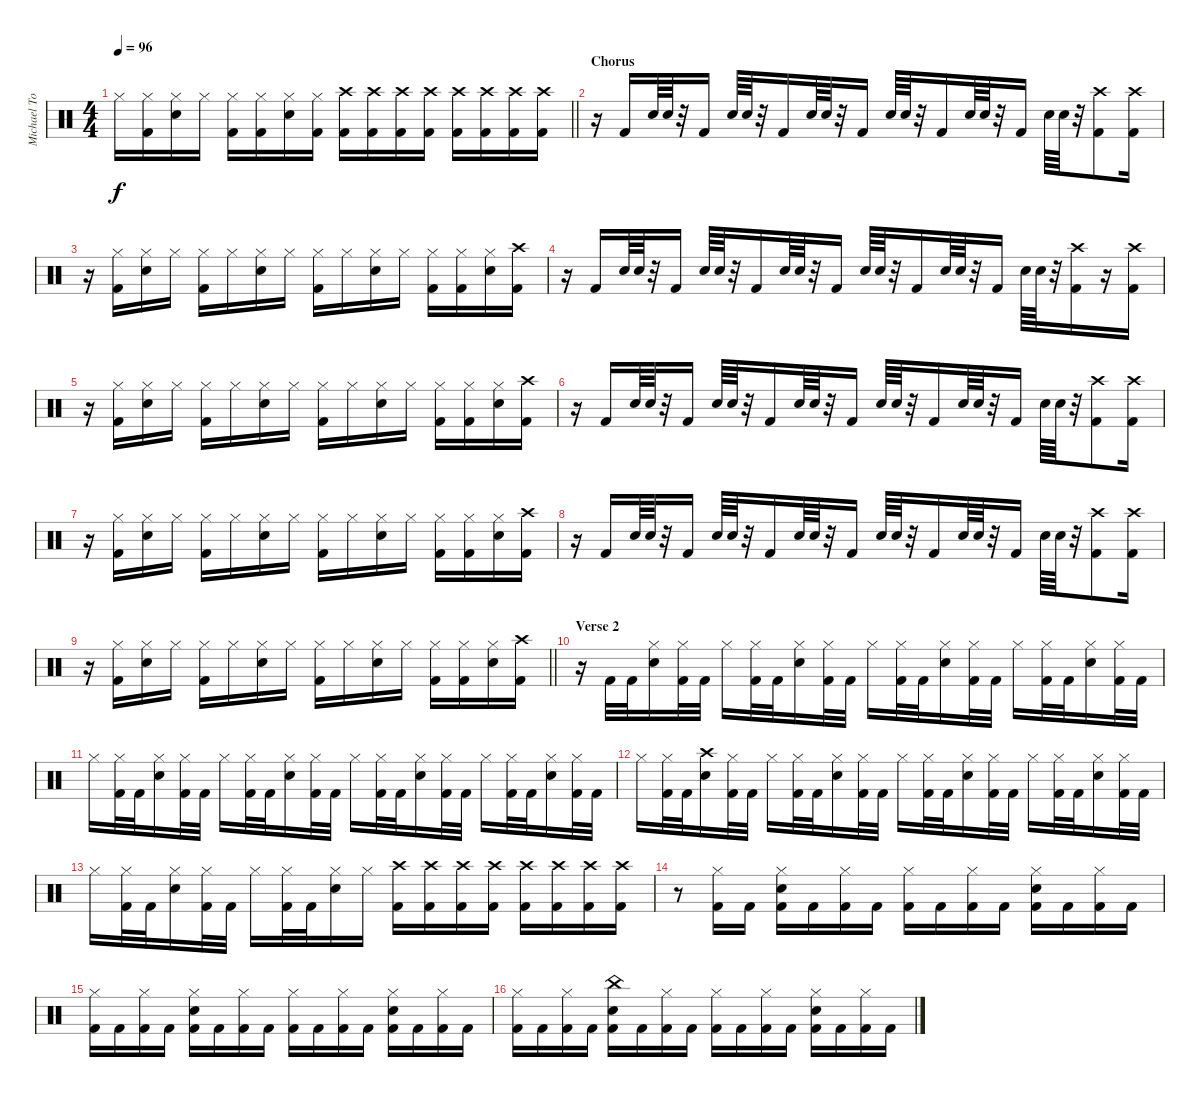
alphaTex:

\track ("Michael Tomas (Drums)" "Michael To") {instrument percussion}
\staff {score}
\articulation defaults
\ts (4 4)
\tempo 96
\clef neutral
\barLineRight lightlight
\ks c "Hi-Hat (closed)".16{dy f}
("Hi-Hat (closed)" "Kick (hit) 2").16 ("Hi-Hat (closed)" "Snare (hit) 2").16 "Hi-Hat (closed)".16 ("Hi-Hat (closed)" "Kick (hit) 2").16 ("Hi-Hat (closed)" "Kick (hit) 2").16 ("Hi-Hat (closed)" "Snare (hit) 2").16 ("Hi-Hat (closed)" "Kick (hit) 2").16 ("Crash high (hit)" "Kick (hit) 2").16 ("Crash high (hit)" "Kick (hit) 2").16 ("Crash high (hit)" "Kick (hit) 2").16 ("Crash high (hit)" "Kick (hit) 2").16 ("Crash high (hit)" "Kick (hit) 2").16 ("Crash high (hit)" "Kick (hit) 2").16 ("Crash high (hit)" "Kick (hit) 2").16 ("Crash high (hit)" "Kick (hit) 2").16 |
\section ("" "Chorus")
r.16 "Kick (hit) 2".16 "Snare (hit) 2".64 "Snare (hit) 2".64 r.32 "Kick (hit) 2".16 "Snare (hit) 2".64 "Snare (hit) 2".64 r.32 "Kick (hit) 2".16 "Snare (hit) 2".64 "Snare (hit) 2".64 r.32 "Kick (hit) 2".16 "Snare (hit) 2".64 "Snare (hit) 2".64 r.32 "Kick (hit) 2".16 "Snare (hit) 2".64 "Snare (hit) 2".64 r.32 "Kick (hit) 2".16 "Snare (hit) 2".64 "Snare (hit) 2".64 r.32 ("Crash high (hit)" "Kick (hit) 2").8 ("Crash high (hit)" "Kick (hit) 2").16 |
r.16 ("Hi-Hat (closed)" "Kick (hit) 2").16 ("Hi-Hat (closed)" "Snare (hit) 2").16 "Hi-Hat (closed)".16 ("Hi-Hat (closed)" "Kick (hit) 2").16 "Hi-Hat (closed)".16 ("Hi-Hat (closed)" "Snare (hit) 2").16 "Hi-Hat (closed)".16 ("Hi-Hat (closed)" "Kick (hit) 2").16 "Hi-Hat (closed)".16 ("Hi-Hat (closed)" "Snare (hit) 2").16 "Hi-Hat (closed)".16 ("Hi-Hat (closed)" "Kick (hit) 2").16 ("Hi-Hat (closed)" "Kick (hit) 2").16 ("Hi-Hat (closed)" "Snare (hit) 2").16 ("Crash high (hit)" "Kick (hit) 2").16 |
r.16 "Kick (hit) 2".16 "Snare (hit) 2".64 "Snare (hit) 2".64 r.32 "Kick (hit) 2".16 "Snare (hit) 2".64 "Snare (hit) 2".64 r.32 "Kick (hit) 2".16 "Snare (hit) 2".64 "Snare (hit) 2".64 r.32 "Kick (hit) 2".16 "Snare (hit) 2".64 "Snare (hit) 2".64 r.32 "Kick (hit) 2".16 "Snare (hit) 2".64 "Snare (hit) 2".64 r.32 "Kick (hit) 2".16 "Snare (hit) 2".64 "Snare (hit) 2".64 r.32 ("Crash high (hit)" "Kick (hit) 2").16 r.16 ("Crash high (hit)" "Kick (hit) 2").16 |
r.16 ("Hi-Hat (closed)" "Kick (hit) 2").16 ("Hi-Hat (closed)" "Snare (hit) 2").16 "Hi-Hat (closed)".16 ("Hi-Hat (closed)" "Kick (hit) 2").16 "Hi-Hat (closed)".16 ("Hi-Hat (closed)" "Snare (hit) 2").16 "Hi-Hat (closed)".16 ("Hi-Hat (closed)" "Kick (hit) 2").16 "Hi-Hat (closed)".16 ("Hi-Hat (closed)" "Snare (hit) 2").16 "Hi-Hat (closed)".16 ("Hi-Hat (closed)" "Kick (hit) 2").16 ("Hi-Hat (closed)" "Kick (hit) 2").16 ("Hi-Hat (closed)" "Snare (hit) 2").16 ("Crash high (hit)" "Kick (hit) 2").16 |
r.16 "Kick (hit) 2".16 "Snare (hit) 2".64 "Snare (hit) 2".64 r.32 "Kick (hit) 2".16 "Snare (hit) 2".64 "Snare (hit) 2".64 r.32 "Kick (hit) 2".16 "Snare (hit) 2".64 "Snare (hit) 2".64 r.32 "Kick (hit) 2".16 "Snare (hit) 2".64 "Snare (hit) 2".64 r.32 "Kick (hit) 2".16 "Snare (hit) 2".64 "Snare (hit) 2".64 r.32 "Kick (hit) 2".16 "Snare (hit) 2".64 "Snare (hit) 2".64 r.32 ("Crash high (hit)" "Kick (hit) 2").8 ("Crash high (hit)" "Kick (hit) 2").16 |
r.16 ("Hi-Hat (closed)" "Kick (hit) 2").16 ("Hi-Hat (closed)" "Snare (hit) 2").16 "Hi-Hat (closed)".16 ("Hi-Hat (closed)" "Kick (hit) 2").16 "Hi-Hat (closed)".16 ("Hi-Hat (closed)" "Snare (hit) 2").16 "Hi-Hat (closed)".16 ("Hi-Hat (closed)" "Kick (hit) 2").16 "Hi-Hat (closed)".16 ("Hi-Hat (closed)" "Snare (hit) 2").16 "Hi-Hat (closed)".16 ("Hi-Hat (closed)" "Kick (hit) 2").16 ("Hi-Hat (closed)" "Kick (hit) 2").16 ("Hi-Hat (closed)" "Snare (hit) 2").16 ("Crash high (hit)" "Kick (hit) 2").16 |
r.16 "Kick (hit) 2".16 "Snare (hit) 2".64 "Snare (hit) 2".64 r.32 "Kick (hit) 2".16 "Snare (hit) 2".64 "Snare (hit) 2".64 r.32 "Kick (hit) 2".16 "Snare (hit) 2".64 "Snare (hit) 2".64 r.32 "Kick (hit) 2".16 "Snare (hit) 2".64 "Snare (hit) 2".64 r.32 "Kick (hit) 2".16 "Snare (hit) 2".64 "Snare (hit) 2".64 r.32 "Kick (hit) 2".16 "Snare (hit) 2".64 "Snare (hit) 2".64 r.32 ("Crash high (hit)" "Kick (hit) 2").8 ("Crash high (hit)" "Kick (hit) 2").16 |
\barLineRight lightlight
r.16 ("Hi-Hat (closed)" "Kick (hit) 2").16 ("Hi-Hat (closed)" "Snare (hit) 2").16 "Hi-Hat (closed)".16 ("Hi-Hat (closed)" "Kick (hit) 2").16 "Hi-Hat (closed)".16 ("Hi-Hat (closed)" "Snare (hit) 2").16 "Hi-Hat (closed)".16 ("Hi-Hat (closed)" "Kick (hit) 2").16 "Hi-Hat (closed)".16 ("Hi-Hat (closed)" "Snare (hit) 2").16 "Hi-Hat (closed)".16 ("Hi-Hat (closed)" "Kick (hit) 2").16 ("Hi-Hat (closed)" "Kick (hit) 2").16 ("Hi-Hat (closed)" "Snare (hit) 2").16 ("Crash high (hit)" "Kick (hit) 2").16 |
\section ("" "Verse 2")
r.16 "Kick (hit) 2".32 "Kick (hit) 2".32 ("Hi-Hat (closed)" "Snare (hit) 2").16 ("Hi-Hat (closed)" "Kick (hit) 2").32 "Kick (hit) 2".32 "Hi-Hat (closed)".16 ("Hi-Hat (closed)" "Kick (hit) 2").32 "Kick (hit) 2".32 ("Hi-Hat (closed)" "Snare (hit) 2").16 ("Hi-Hat (closed)" "Kick (hit) 2").32 "Kick (hit) 2".32 "Hi-Hat (closed)".16 ("Hi-Hat (closed)" "Kick (hit) 2").32 "Kick (hit) 2".32 ("Hi-Hat (closed)" "Snare (hit) 2").16 ("Hi-Hat (closed)" "Kick (hit) 2").32 "Kick (hit) 2".32 "Hi-Hat (closed)".16 ("Hi-Hat (closed)" "Kick (hit) 2").32 "Kick (hit) 2".32 ("Hi-Hat (closed)" "Snare (hit) 2").16 ("Hi-Hat (closed)" "Kick (hit) 2").32 "Kick (hit) 2".32 |
"Hi-Hat (closed)".16 ("Hi-Hat (closed)" "Kick (hit) 2").32 "Kick (hit) 2".32 ("Hi-Hat (closed)" "Snare (hit) 2").16 ("Hi-Hat (closed)" "Kick (hit) 2").32 "Kick (hit) 2".32 "Hi-Hat (closed)".16 ("Hi-Hat (closed)" "Kick (hit) 2").32 "Kick (hit) 2".32 ("Hi-Hat (closed)" "Snare (hit) 2").16 ("Hi-Hat (closed)" "Kick (hit) 2").32 "Kick (hit) 2".32 "Hi-Hat (closed)".16 ("Hi-Hat (closed)" "Kick (hit) 2").32 "Kick (hit) 2".32 ("Hi-Hat (closed)" "Snare (hit) 2").16 ("Hi-Hat (closed)" "Kick (hit) 2").32 "Kick (hit) 2".32 "Hi-Hat (closed)".16 ("Hi-Hat (closed)" "Kick (hit) 2").32 "Kick (hit) 2".32 ("Hi-Hat (closed)" "Snare (hit) 2").16 ("Hi-Hat (closed)" "Kick (hit) 2").32 "Kick (hit) 2".32 |
"Hi-Hat (closed)".16 ("Hi-Hat (closed)" "Kick (hit) 2").32 "Kick (hit) 2".32 ("Crash high (hit)" "Snare (hit) 2").16 ("Hi-Hat (closed)" "Kick (hit) 2").32 "Kick (hit) 2".32 "Hi-Hat (closed)".16 ("Hi-Hat (closed)" "Kick (hit) 2").32 "Kick (hit) 2".32 ("Hi-Hat (closed)" "Snare (hit) 2").16 ("Hi-Hat (closed)" "Kick (hit) 2").32 "Kick (hit) 2".32 "Hi-Hat (closed)".16 ("Hi-Hat (closed)" "Kick (hit) 2").32 "Kick (hit) 2".32 ("Hi-Hat (closed)" "Snare (hit) 2").16 ("Hi-Hat (closed)" "Kick (hit) 2").32 "Kick (hit) 2".32 "Hi-Hat (closed)".16 ("Hi-Hat (closed)" "Kick (hit) 2").32 "Kick (hit) 2".32 ("Hi-Hat (closed)" "Snare (hit) 2").16 ("Hi-Hat (closed)" "Kick (hit) 2").32 "Kick (hit) 2".32 |
"Hi-Hat (closed)".16 ("Hi-Hat (closed)" "Kick (hit) 2").32 "Kick (hit) 2".32 ("Hi-Hat (closed)" "Snare (hit) 2").16 ("Hi-Hat (closed)" "Kick (hit) 2").32 "Kick (hit) 2".32 "Hi-Hat (closed)".16 ("Hi-Hat (closed)" "Kick (hit) 2").32 "Kick (hit) 2".32 ("Hi-Hat (closed)" "Snare (hit) 2").16 "Hi-Hat (closed)".16 ("Crash high (hit)" "Kick (hit) 2").16 ("Crash high (hit)" "Kick (hit) 2").16 ("Crash high (hit)" "Kick (hit) 2").16 ("Crash high (hit)" "Kick (hit) 2").16 ("Crash high (hit)" "Kick (hit) 2").16 ("Crash high (hit)" "Kick (hit) 2").16 ("Crash high (hit)" "Kick (hit) 2").16 ("Crash high (hit)" "Kick (hit) 2").16 |
r.8 ("Hi-Hat (closed)" "Kick (hit) 2").16 "Kick (hit) 2".16 ("Hi-Hat (closed)" "Snare (hit) 2" "Kick (hit) 2").16 "Kick (hit) 2".16 ("Hi-Hat (closed)" "Kick (hit) 2").16 "Kick (hit) 2".16 ("Hi-Hat (closed)" "Kick (hit) 2").16 "Kick (hit) 2".16 ("Hi-Hat (closed)" "Kick (hit) 2").16 "Kick (hit) 2".16 ("Hi-Hat (closed)" "Snare (hit) 2" "Kick (hit) 2").16 "Kick (hit) 2".16 ("Hi-Hat (closed)" "Kick (hit) 2").16 "Kick (hit) 2".16 |
("Hi-Hat (closed)" "Kick (hit) 2").16 "Kick (hit) 2".16 ("Hi-Hat (closed)" "Kick (hit) 2").16 "Kick (hit) 2".16 ("Hi-Hat (closed)" "Snare (hit) 2" "Kick (hit) 2").16 "Kick (hit) 2".16 ("Hi-Hat (closed)" "Kick (hit) 2").16 "Kick (hit) 2".16 ("Hi-Hat (closed)" "Kick (hit) 2").16 "Kick (hit) 2".16 ("Hi-Hat (closed)" "Kick (hit) 2").16 "Kick (hit) 2".16 ("Hi-Hat (closed)" "Snare (hit) 2" "Kick (hit) 2").16 "Kick (hit) 2".16 ("Hi-Hat (closed)" "Kick (hit) 2").16 "Kick (hit) 2".16 |
("Hi-Hat (closed)" "Kick (hit) 2").16 "Kick (hit) 2".16 ("Hi-Hat (closed)" "Kick (hit) 2").16 "Kick (hit) 2".16 ("China (hit)" "Snare (hit) 2" "Kick (hit) 2").16 "Kick (hit) 2".16 ("Hi-Hat (closed)" "Kick (hit) 2").16 "Kick (hit) 2".16 ("Hi-Hat (closed)" "Kick (hit) 2").16 "Kick (hit) 2".16 ("Hi-Hat (closed)" "Kick (hit) 2").16 "Kick (hit) 2".16 ("Hi-Hat (closed)" "Snare (hit) 2" "Kick (hit) 2").16 "Kick (hit) 2".16 ("Hi-Hat (closed)" "Kick (hit) 2").16 "Kick (hit) 2".16
